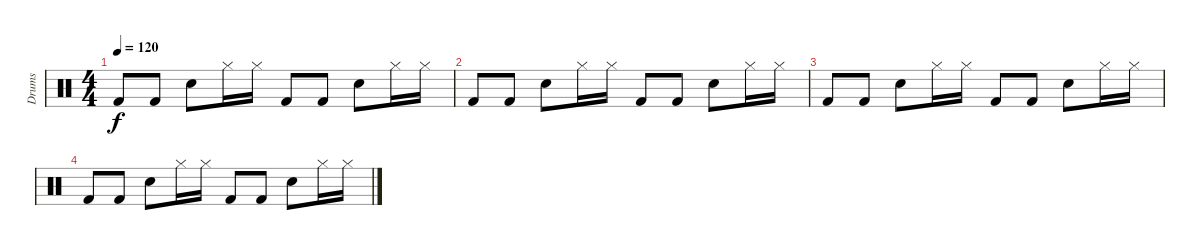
\track ("Drums" "Drums") {instrument percussion}
\staff {score}
\articulation defaults
\ts (4 4)
\tempo 120
\clef neutral
\ks c "Kick (hit) 2".8{dy f} "Kick (hit) 2".8 "Snare (hit) 2".8 "Hi-Hat (closed)".16 "Hi-Hat (closed)".16 "Kick (hit) 2".8 "Kick (hit) 2".8 "Snare (hit) 2".8 "Hi-Hat (closed)".16 "Hi-Hat (closed)".16
|
"Kick (hit) 2".8 "Kick (hit) 2".8 "Snare (hit) 2".8 "Hi-Hat (closed)".16 "Hi-Hat (closed)".16 "Kick (hit) 2".8 "Kick (hit) 2".8 "Snare (hit) 2".8 "Hi-Hat (closed)".16 "Hi-Hat (closed)".16 |
"Kick (hit) 2".8 "Kick (hit) 2".8 "Snare (hit) 2".8 "Hi-Hat (closed)".16 "Hi-Hat (closed)".16 "Kick (hit) 2".8 "Kick (hit) 2".8 "Snare (hit) 2".8 "Hi-Hat (closed)".16 "Hi-Hat (closed)".16 |
"Kick (hit) 2".8 "Kick (hit) 2".8 "Snare (hit) 2".8 "Hi-Hat (closed)".16 "Hi-Hat (closed)".16 "Kick (hit) 2".8 "Kick (hit) 2".8 "Snare (hit) 2".8 "Hi-Hat (closed)".16 "Hi-Hat (closed)".16
